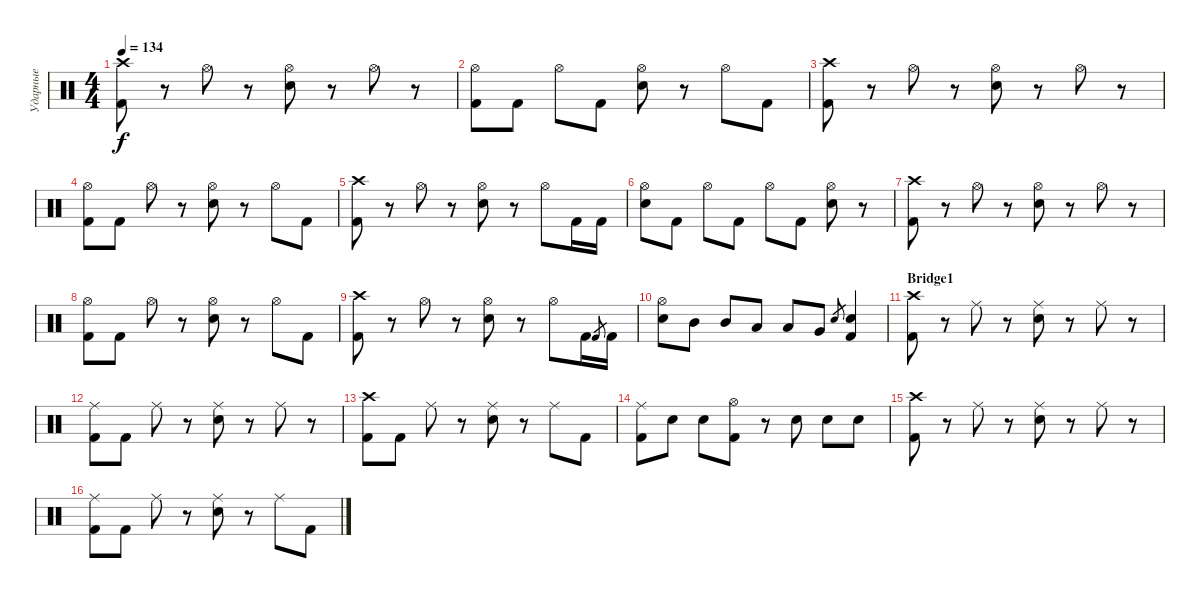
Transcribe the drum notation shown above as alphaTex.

\track ("Ударные" "Ударные") {instrument percussion}
\staff {score}
\articulation defaults
\ts (4 4)
\tempo 134
\clef neutral
\ks c
("Crash high (hit)" "Kick (hit) 2").8{dy f} r.8 "Hi-Hat (open)".8 r.8 ("Hi-Hat (open)" "Electric Snare (hit)").8 r.8 "Hi-Hat (open)".8 r.8 |
("Hi-Hat (open)" "Kick (hit) 2").8 "Kick (hit) 2".8 "Hi-Hat (open)".8 "Kick (hit) 2".8 ("Hi-Hat (open)" "Electric Snare (hit)").8 r.8 "Hi-Hat (open)".8 "Kick (hit) 2".8 |
("Crash high (hit)" "Kick (hit) 2").8 r.8 "Hi-Hat (open)".8 r.8 ("Hi-Hat (open)" "Electric Snare (hit)").8 r.8 "Hi-Hat (open)".8 r.8 |
("Hi-Hat (open)" "Kick (hit) 2").8 "Kick (hit) 2".8 "Hi-Hat (open)".8 r.8 ("Hi-Hat (open)" "Electric Snare (hit)").8 r.8 "Hi-Hat (open)".8 "Kick (hit) 2".8 |
("Crash high (hit)" "Kick (hit) 2").8 r.8 "Hi-Hat (open)".8 r.8 ("Hi-Hat (open)" "Electric Snare (hit)").8 r.8 "Hi-Hat (open)".8 "Kick (hit) 2".16 "Kick (hit) 2".16 |
("Hi-Hat (open)" "Electric Snare (hit)").8 "Kick (hit) 2".8 "Hi-Hat (open)".8 "Kick (hit) 2".8 "Hi-Hat (open)".8 "Kick (hit) 2".8 ("Hi-Hat (open)" "Electric Snare (hit)").8 r.8 |
("Crash high (hit)" "Kick (hit) 2").8 r.8 "Hi-Hat (open)".8 r.8 ("Hi-Hat (open)" "Electric Snare (hit)").8 r.8 "Hi-Hat (open)".8 r.8 |
("Hi-Hat (open)" "Kick (hit) 2").8 "Kick (hit) 2".8 "Hi-Hat (open)".8 r.8 ("Hi-Hat (open)" "Electric Snare (hit)").8 r.8 "Hi-Hat (open)".8 "Kick (hit) 2".8 |
("Crash high (hit)" "Kick (hit) 2").8 r.8 "Hi-Hat (open)".8 r.8 ("Hi-Hat (open)" "Electric Snare (hit)").8 r.8 "Hi-Hat (open)".8 "Kick (hit) 2".16 "Kick (hit) 2".8{gr} "Kick (hit) 2".16 |
("Hi-Hat (open)" "Electric Snare (hit)").8 "Mid Tom (hit)".8 "Mid Tom (hit)".8 "Low Tom (hit)".8 "Low Tom (hit)".8 "Very Low Tom (hit)".8 "Electric Snare (hit)".8{gr} ("Electric Snare (hit)" "Kick (hit) 2").4 |
\section ("" "Bridge1")
("Crash high (hit)" "Kick (hit) 2").8 r.8 "Ride (middle)".8 r.8 ("Ride (middle)" "Electric Snare (hit)").8 r.8 "Ride (middle)".8 r.8 |
("Ride (middle)" "Kick (hit) 2").8 "Kick (hit) 2".8 "Ride (middle)".8 r.8 ("Ride (middle)" "Electric Snare (hit)").8 r.8 "Ride (middle)".8 r.8 |
("Crash high (hit)" "Kick (hit) 2").8 "Kick (hit) 2".8 "Ride (middle)".8 r.8 ("Ride (middle)" "Electric Snare (hit)").8 r.8 "Ride (middle)".8 "Kick (hit) 2".8 |
("Ride (middle)" "Kick (hit) 2").8 "Electric Snare (hit)".8 "Electric Snare (hit)".8 ("Hi-Hat (open)" "Kick (hit) 2").8 r.8 "Electric Snare (hit)".8 "Electric Snare (hit)".8 "Electric Snare (hit)".8 |
("Crash high (hit)" "Kick (hit) 2").8 r.8 "Ride (middle)".8 r.8 ("Ride (middle)" "Electric Snare (hit)").8 r.8 "Ride (middle)".8 r.8 |
("Ride (middle)" "Kick (hit) 2").8 "Kick (hit) 2".8 "Ride (middle)".8 r.8 ("Ride (middle)" "Electric Snare (hit)").8 r.8 "Ride (middle)".8 "Kick (hit) 2".8
